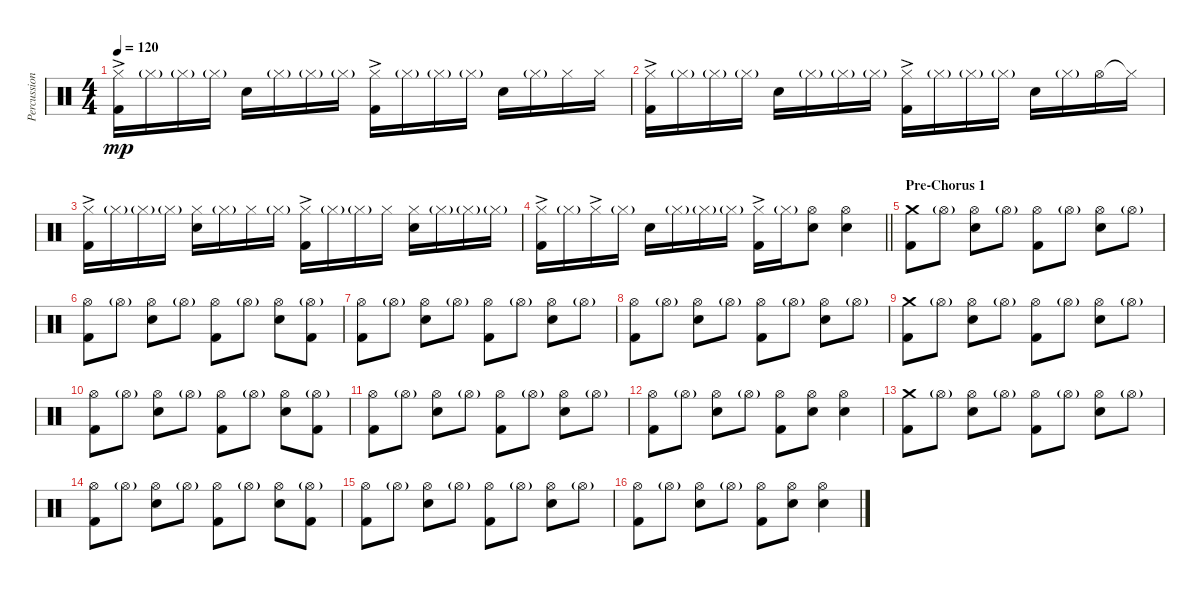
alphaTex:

\track ("Percussion" "Percussion") {instrument percussion}
\staff {score}
\articulation defaults
\ts (4 4)
\tempo 120
\clef neutral
\ks c
("Hi-Hat (closed)"{ac} "Kick (hit) 2").16{dy mp} "Hi-Hat (closed)"{g}.16 "Hi-Hat (closed)"{g}.16 "Hi-Hat (closed)"{g}.16 "Electric Snare (hit)".16 "Hi-Hat (closed)"{g}.16 "Hi-Hat (closed)"{g}.16 "Hi-Hat (closed)"{g}.16 ("Hi-Hat (closed)"{ac} "Kick (hit) 2"{ac}).16 "Hi-Hat (closed)"{g}.16 "Hi-Hat (closed)"{g}.16 "Hi-Hat (closed)"{g}.16 "Electric Snare (hit)".16 "Hi-Hat (closed)"{g}.16 "Hi-Hat (closed)".16 "Hi-Hat (closed)".16 |
("Hi-Hat (closed)"{ac} "Kick (hit) 2").16 "Hi-Hat (closed)"{g}.16 "Hi-Hat (closed)"{g}.16 "Hi-Hat (closed)"{g}.16 "Electric Snare (hit)".16 "Hi-Hat (closed)"{g}.16 "Hi-Hat (closed)"{g}.16 "Hi-Hat (closed)"{g}.16 ("Hi-Hat (closed)"{ac} "Kick (hit) 2"{ac}).16 "Hi-Hat (closed)"{g}.16 "Hi-Hat (closed)"{g}.16 "Hi-Hat (closed)"{g}.16 "Electric Snare (hit)".16 "Hi-Hat (closed)"{g}.16 "Hi-Hat (open)".16 "Hi-Hat (closed)"{t}.16 |
("Hi-Hat (closed)"{ac} "Kick (hit) 2").16 "Hi-Hat (closed)"{g}.16 "Hi-Hat (closed)"{g}.16 "Hi-Hat (closed)"{g}.16 ("Hi-Hat (closed)" "Electric Snare (hit)").16 "Hi-Hat (closed)"{g}.16 "Hi-Hat (closed)".16 "Hi-Hat (closed)"{g}.16 ("Hi-Hat (closed)"{ac} "Kick (hit) 2").16 "Hi-Hat (closed)"{g}.16 "Hi-Hat (closed)"{g}.16 "Hi-Hat (closed)".16 ("Hi-Hat (closed)" "Electric Snare (hit)").16 "Hi-Hat (closed)"{g}.16 "Hi-Hat (closed)"{g}.16 "Hi-Hat (closed)"{g}.16 |
\barLineRight lightlight
("Hi-Hat (closed)"{ac} "Kick (hit) 2").16 "Hi-Hat (closed)"{g}.16 "Hi-Hat (closed)"{ac}.16 "Hi-Hat (closed)"{g}.16 "Electric Snare (hit)".16 "Hi-Hat (closed)"{g}.16 "Hi-Hat (closed)"{g}.16 "Hi-Hat (closed)"{g}.16 ("Hi-Hat (closed)"{ac} "Kick (hit) 2").16 "Hi-Hat (closed)"{g}.16 ("Hi-Hat (open)" "Electric Snare (hit)").8 ("Hi-Hat (open)" "Electric Snare (hit)").4 |
\section ("" "Pre-Chorus 1")
("Crash medium (hit)" "Kick (hit) 2").8 "Hi-Hat (open)"{g}.8 ("Hi-Hat (open)" "Electric Snare (hit)").8 "Hi-Hat (open)"{g}.8 ("Hi-Hat (open)" "Kick (hit) 2").8 "Hi-Hat (open)"{g}.8 ("Hi-Hat (open)" "Electric Snare (hit)").8 "Hi-Hat (open)"{g}.8 |
("Hi-Hat (open)" "Kick (hit) 2").8 "Hi-Hat (open)"{g}.8 ("Hi-Hat (open)" "Electric Snare (hit)").8 "Hi-Hat (open)"{g}.8 ("Hi-Hat (open)" "Kick (hit) 2").8 "Hi-Hat (open)"{g}.8 ("Hi-Hat (open)" "Electric Snare (hit)").8 ("Hi-Hat (open)"{g} "Kick (hit) 2").8 |
("Hi-Hat (open)" "Kick (hit) 2").8 "Hi-Hat (open)"{g}.8 ("Hi-Hat (open)" "Electric Snare (hit)").8 "Hi-Hat (open)"{g}.8 ("Hi-Hat (open)" "Kick (hit) 2").8 "Hi-Hat (open)"{g}.8 ("Hi-Hat (open)" "Electric Snare (hit)").8 "Hi-Hat (open)"{g}.8 |
("Hi-Hat (open)" "Kick (hit) 2").8 "Hi-Hat (open)"{g}.8 ("Hi-Hat (open)" "Electric Snare (hit)").8 "Hi-Hat (open)"{g}.8 ("Hi-Hat (open)" "Kick (hit) 2").8 "Hi-Hat (open)"{g}.8 ("Hi-Hat (open)" "Electric Snare (hit)").8 "Hi-Hat (open)"{g}.8 |
("Crash medium (hit)" "Kick (hit) 2").8 "Hi-Hat (open)"{g}.8 ("Hi-Hat (open)" "Electric Snare (hit)").8 "Hi-Hat (open)"{g}.8 ("Hi-Hat (open)" "Kick (hit) 2").8 "Hi-Hat (open)"{g}.8 ("Hi-Hat (open)" "Electric Snare (hit)").8 "Hi-Hat (open)"{g}.8 |
("Hi-Hat (open)" "Kick (hit) 2").8 "Hi-Hat (open)"{g}.8 ("Hi-Hat (open)" "Electric Snare (hit)").8 "Hi-Hat (open)"{g}.8 ("Hi-Hat (open)" "Kick (hit) 2").8 "Hi-Hat (open)"{g}.8 ("Hi-Hat (open)" "Electric Snare (hit)").8 ("Hi-Hat (open)"{g} "Kick (hit) 2").8 |
("Hi-Hat (open)" "Kick (hit) 2").8 "Hi-Hat (open)"{g}.8 ("Hi-Hat (open)" "Electric Snare (hit)").8 "Hi-Hat (open)"{g}.8 ("Hi-Hat (open)" "Kick (hit) 2").8 "Hi-Hat (open)"{g}.8 ("Hi-Hat (open)" "Electric Snare (hit)").8 "Hi-Hat (open)"{g}.8 |
("Hi-Hat (open)" "Kick (hit) 2").8 "Hi-Hat (open)"{g}.8 ("Hi-Hat (open)" "Electric Snare (hit)").8 "Hi-Hat (open)"{g}.8 ("Hi-Hat (open)" "Kick (hit) 2").8 ("Hi-Hat (open)" "Electric Snare (hit)").8 ("Hi-Hat (open)" "Electric Snare (hit)").4 |
("Crash medium (hit)" "Kick (hit) 2").8 "Hi-Hat (open)"{g}.8 ("Hi-Hat (open)" "Electric Snare (hit)").8 "Hi-Hat (open)"{g}.8 ("Hi-Hat (open)" "Kick (hit) 2").8 "Hi-Hat (open)"{g}.8 ("Hi-Hat (open)" "Electric Snare (hit)").8 "Hi-Hat (open)"{g}.8 |
("Hi-Hat (open)" "Kick (hit) 2").8 "Hi-Hat (open)"{g}.8 ("Hi-Hat (open)" "Electric Snare (hit)").8 "Hi-Hat (open)"{g}.8 ("Hi-Hat (open)" "Kick (hit) 2").8 "Hi-Hat (open)"{g}.8 ("Hi-Hat (open)" "Electric Snare (hit)").8 ("Hi-Hat (open)"{g} "Kick (hit) 2").8 |
("Hi-Hat (open)" "Kick (hit) 2").8 "Hi-Hat (open)"{g}.8 ("Hi-Hat (open)" "Electric Snare (hit)").8 "Hi-Hat (open)"{g}.8 ("Hi-Hat (open)" "Kick (hit) 2").8 "Hi-Hat (open)"{g}.8 ("Hi-Hat (open)" "Electric Snare (hit)").8 "Hi-Hat (open)"{g}.8 |
("Hi-Hat (open)" "Kick (hit) 2").8 "Hi-Hat (open)"{g}.8 ("Hi-Hat (open)" "Electric Snare (hit)").8 "Hi-Hat (open)"{g}.8 ("Hi-Hat (open)" "Kick (hit) 2").8 ("Hi-Hat (open)" "Electric Snare (hit)").8 ("Hi-Hat (open)" "Electric Snare (hit)").4
